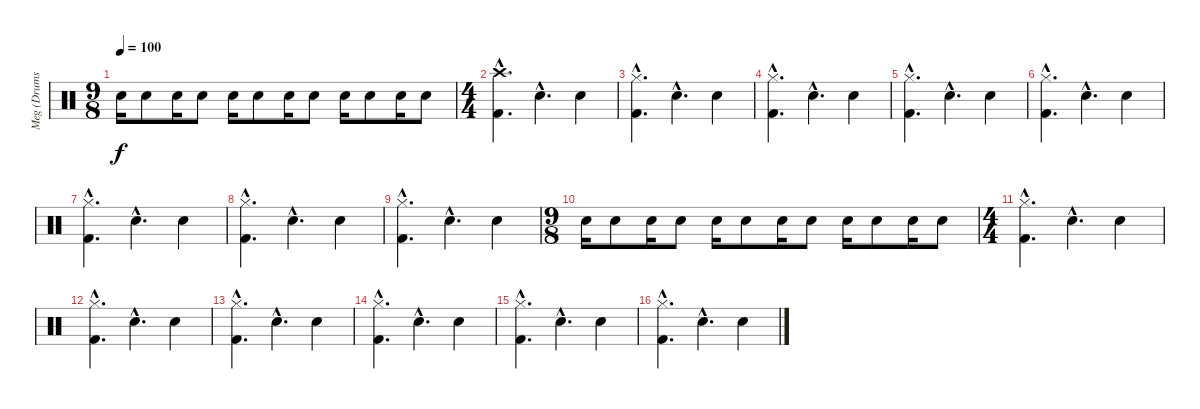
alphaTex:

\track ("Meg (Drums)" "Meg (Drums") {instrument percussion}
\staff {score}
\articulation defaults
\ts (9 8)
\tempo 100
\clef neutral
\ks c "Snare (hit) 2".16{dy f} "Snare (hit) 2".8 "Snare (hit) 2".16 "Snare (hit) 2".8 "Snare (hit) 2".16 "Snare (hit) 2".8 "Snare (hit) 2".16 "Snare (hit) 2".8 "Snare (hit) 2".16 "Snare (hit) 2".8 "Snare (hit) 2".16 "Snare (hit) 2".8
|
\ts (4 4)
("Crash high (hit)"{hac} "Kick (hit) 2"{hac}).4{d} "Snare (hit) 2"{hac}.4{d} "Snare (hit) 2".4 |
("Hi-Hat (closed)"{hac} "Kick (hit) 2"{hac}).4{d} "Snare (hit) 2"{hac}.4{d} "Snare (hit) 2".4 |
("Hi-Hat (closed)"{hac} "Kick (hit) 2"{hac}).4{d} "Snare (hit) 2"{hac}.4{d} "Snare (hit) 2".4 |
("Hi-Hat (closed)"{hac} "Kick (hit) 2"{hac}).4{d} "Snare (hit) 2"{hac}.4{d} "Snare (hit) 2".4 |
("Hi-Hat (closed)"{hac} "Kick (hit) 2"{hac}).4{d} "Snare (hit) 2"{hac}.4{d} "Snare (hit) 2".4 |
("Hi-Hat (closed)"{hac} "Kick (hit) 2"{hac}).4{d} "Snare (hit) 2"{hac}.4{d} "Snare (hit) 2".4 |
("Hi-Hat (closed)"{hac} "Kick (hit) 2"{hac}).4{d} "Snare (hit) 2"{hac}.4{d} "Snare (hit) 2".4 |
("Hi-Hat (closed)"{hac} "Kick (hit) 2"{hac}).4{d} "Snare (hit) 2"{hac}.4{d} "Snare (hit) 2".4 |
\ts (9 8)
"Snare (hit) 2".16 "Snare (hit) 2".8 "Snare (hit) 2".16 "Snare (hit) 2".8 "Snare (hit) 2".16 "Snare (hit) 2".8 "Snare (hit) 2".16 "Snare (hit) 2".8 "Snare (hit) 2".16 "Snare (hit) 2".8 "Snare (hit) 2".16 "Snare (hit) 2".8 |
\ts (4 4)
("Hi-Hat (closed)"{hac} "Kick (hit) 2"{hac}).4{d} "Snare (hit) 2"{hac}.4{d} "Snare (hit) 2".4 |
("Hi-Hat (closed)"{hac} "Kick (hit) 2"{hac}).4{d} "Snare (hit) 2"{hac}.4{d} "Snare (hit) 2".4 |
("Hi-Hat (closed)"{hac} "Kick (hit) 2"{hac}).4{d} "Snare (hit) 2"{hac}.4{d} "Snare (hit) 2".4 |
("Hi-Hat (closed)"{hac} "Kick (hit) 2"{hac}).4{d} "Snare (hit) 2"{hac}.4{d} "Snare (hit) 2".4 |
("Hi-Hat (closed)"{hac} "Kick (hit) 2"{hac}).4{d} "Snare (hit) 2"{hac}.4{d} "Snare (hit) 2".4 |
("Hi-Hat (closed)"{hac} "Kick (hit) 2"{hac}).4{d} "Snare (hit) 2"{hac}.4{d} "Snare (hit) 2".4
